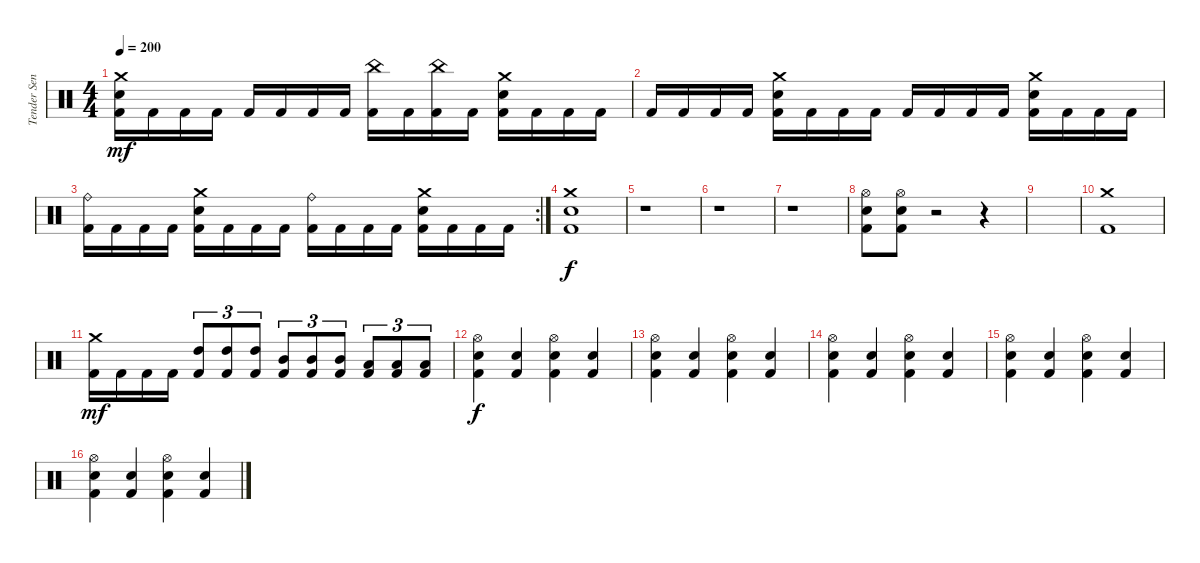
\track ("Tender Sender" "Tender Sen") {instrument percussion}
\staff {score}
\articulation defaults
\ts (4 4)
\tempo 200
\clef neutral
\ks c
("Kick (hit) 2" "Snare (hit) 2" "Crash medium (hit)").16{dy mf} "Kick (hit) 2".16 "Kick (hit) 2".16 "Kick (hit) 2".16 "Kick (hit) 2".16 "Kick (hit) 2".16 "Kick (hit) 2".16 "Kick (hit) 2".16 ("Kick (hit) 2" "China (hit)").16 "Kick (hit) 2".16 ("Kick (hit) 2" "China (hit)").16 "Kick (hit) 2".16 ("Kick (hit) 2" "Snare (hit) 2" "Crash medium (hit)").16 "Kick (hit) 2".16 "Kick (hit) 2".16 "Kick (hit) 2".16 |
"Kick (hit) 2".16 "Kick (hit) 2".16 "Kick (hit) 2".16 "Kick (hit) 2".16 ("Kick (hit) 2" "Snare (hit) 2" "Crash medium (hit)").16 "Kick (hit) 2".16 "Kick (hit) 2".16 "Kick (hit) 2".16 "Kick (hit) 2".16 "Kick (hit) 2".16 "Kick (hit) 2".16 "Kick (hit) 2".16 ("Kick (hit) 2" "Snare (hit) 2" "Crash medium (hit)").16 "Kick (hit) 2".16 "Kick (hit) 2".16 "Kick (hit) 2".16 |
\rc 2
("Kick (hit) 2" "Ride (bell)").16 "Kick (hit) 2".16 "Kick (hit) 2".16 "Kick (hit) 2".16 ("Kick (hit) 2" "Snare (hit) 2" "Crash medium (hit)").16 "Kick (hit) 2".16 "Kick (hit) 2".16 "Kick (hit) 2".16 ("Kick (hit) 2" "Ride (bell)").16 "Kick (hit) 2".16 "Kick (hit) 2".16 "Kick (hit) 2".16 ("Kick (hit) 2" "Snare (hit) 2" "Crash medium (hit)").16 "Kick (hit) 2".16 "Kick (hit) 2".16 "Kick (hit) 2".16 |
("Kick (hit) 2" "Snare (hit) 2" "Crash medium (hit)").1{dy f} |
r.1 |
r.1 |
r.1 |
("Kick (hit) 2" "Snare (hit) 2" "Hi-Hat (open)").8 ("Kick (hit) 2" "Snare (hit) 2" "Hi-Hat (open)").8 r.2 r.4 |
|
("Kick (hit) 2" "Crash medium (hit)").1 |
("Kick (hit) 2" "Crash medium (hit)").16{dy mf} "Kick (hit) 2".16 "Kick (hit) 2".16 "Kick (hit) 2".16 ("Kick (hit) 2" "High Tom (hit)").8{tu (3 2)} ("Kick (hit) 2" "High Tom (hit)").8{tu (3 2)} ("Kick (hit) 2" "High Tom (hit)").8{tu (3 2)} ("Kick (hit) 2" "Mid Tom (hit)").8{tu (3 2)} ("Kick (hit) 2" "Mid Tom (hit)").8{tu (3 2)} ("Kick (hit) 2" "Mid Tom (hit)").8{tu (3 2)} ("Kick (hit) 2" "Low Tom (hit)").8{tu (3 2)} ("Kick (hit) 2" "Low Tom (hit)").8{tu (3 2)} ("Kick (hit) 2" "Low Tom (hit)").8{tu (3 2)} |
("Kick (hit) 2" "Snare (hit) 2" "Hi-Hat (open)").4{dy f} ("Kick (hit) 2" "Snare (hit) 2").4 ("Kick (hit) 2" "Snare (hit) 2" "Hi-Hat (open)").4 ("Kick (hit) 2" "Snare (hit) 2").4 |
("Kick (hit) 2" "Snare (hit) 2" "Hi-Hat (open)").4 ("Kick (hit) 2" "Snare (hit) 2").4 ("Kick (hit) 2" "Snare (hit) 2" "Hi-Hat (open)").4 ("Kick (hit) 2" "Snare (hit) 2").4 |
("Kick (hit) 2" "Snare (hit) 2" "Hi-Hat (open)").4 ("Kick (hit) 2" "Snare (hit) 2").4 ("Kick (hit) 2" "Snare (hit) 2" "Hi-Hat (open)").4 ("Kick (hit) 2" "Snare (hit) 2").4 |
("Kick (hit) 2" "Snare (hit) 2" "Hi-Hat (open)").4 ("Kick (hit) 2" "Snare (hit) 2").4 ("Kick (hit) 2" "Snare (hit) 2" "Hi-Hat (open)").4 ("Kick (hit) 2" "Snare (hit) 2").4 |
("Kick (hit) 2" "Snare (hit) 2" "Hi-Hat (open)").4 ("Kick (hit) 2" "Snare (hit) 2").4 ("Kick (hit) 2" "Snare (hit) 2" "Hi-Hat (open)").4 ("Kick (hit) 2" "Snare (hit) 2").4
